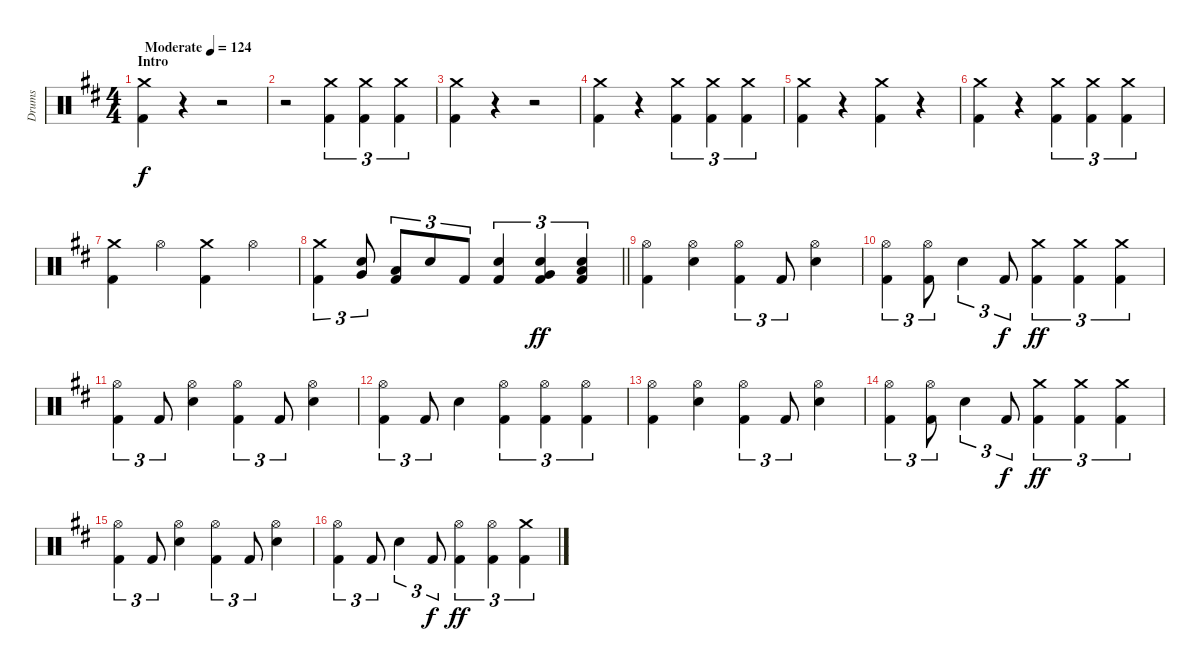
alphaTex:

\track ("Drums" "Drums") {instrument percussion}
\staff {score}
\articulation defaults
\ts (4 4)
\section ("" "Intro")
\tempo (124 "Moderate")
\clef neutral
\ks d
("Crash medium (hit)" "Kick (hit) 2").4{dy f} r.4 r.2 |
r.2 ("Crash medium (hit)" "Kick (hit) 2").4{tu (3 2)} ("Crash medium (hit)" "Kick (hit) 2").4{tu (3 2)} ("Crash medium (hit)" "Kick (hit) 2").4{tu (3 2)} |
("Crash medium (hit)" "Kick (hit) 2").4 r.4 r.2 |
("Crash medium (hit)" "Kick (hit) 2").4 r.4 ("Crash medium (hit)" "Kick (hit) 2").4{tu (3 2)} ("Crash medium (hit)" "Kick (hit) 2").4{tu (3 2)} ("Crash medium (hit)" "Kick (hit) 2").4{tu (3 2)} |
("Crash medium (hit)" "Kick (hit) 2").4 r.4 ("Crash medium (hit)" "Kick (hit) 2").4 r.4 |
("Crash medium (hit)" "Kick (hit) 2").4 r.4 ("Crash medium (hit)" "Kick (hit) 2").4{tu (3 2)} ("Crash medium (hit)" "Kick (hit) 2").4{tu (3 2)} ("Crash medium (hit)" "Kick (hit) 2").4{tu (3 2)} |
("Crash medium (hit)" "Kick (hit) 2").4 "Hi-Hat (open)".4 ("Crash medium (hit)" "Kick (hit) 2").4 "Hi-Hat (open)".4 |
\barLineRight lightlight
("Crash medium (hit)" "Kick (hit) 2").4{tu (3 2)} ("Electric Snare (hit)" "Very Low Tom (hit)").8{tu (3 2)} ("Low Floor Tom (hit)" "Kick (hit) 2").8{tu (3 2)} "Electric Snare (hit)".8{tu (3 2)} "Kick (hit) 2".8{tu (3 2)} ("Electric Snare (hit)" "Kick (hit) 2").4{tu (3 2)} ("Electric Snare (hit)" "Very Low Tom (hit)" "Kick (hit) 2").4{tu (3 2) dy ff} ("Electric Snare (hit)" "Low Floor Tom (hit)" "Kick (hit) 2").4{tu (3 2)} |
("Hi-Hat (open)" "Kick (hit) 2").4 ("Hi-Hat (open)" "Electric Snare (hit)").4 ("Hi-Hat (open)" "Kick (hit) 2").4{tu (3 2)} "Kick (hit) 2".8{tu (3 2)} ("Hi-Hat (open)" "Electric Snare (hit)").4 |
("Hi-Hat (open)" "Kick (hit) 2").4{tu (3 2)} ("Hi-Hat (open)" "Kick (hit) 2").8{tu (3 2)} "Electric Snare (hit)".4{tu (3 2)} "Kick (hit) 2".8{tu (3 2) dy f} ("Crash medium (hit)" "Kick (hit) 2").4{tu (3 2) dy ff} ("Crash medium (hit)" "Kick (hit) 2").4{tu (3 2)} ("Crash medium (hit)" "Kick (hit) 2").4{tu (3 2)} |
("Hi-Hat (open)" "Kick (hit) 2").4{tu (3 2)} "Kick (hit) 2".8{tu (3 2)} ("Hi-Hat (open)" "Electric Snare (hit)").4 ("Hi-Hat (open)" "Kick (hit) 2").4{tu (3 2)} "Kick (hit) 2".8{tu (3 2)} ("Hi-Hat (open)" "Electric Snare (hit)").4 |
("Hi-Hat (open)" "Kick (hit) 2").4{tu (3 2)} "Kick (hit) 2".8{tu (3 2)} "Electric Snare (hit)".4 ("Hi-Hat (open)" "Kick (hit) 2").4{tu (3 2)} ("Hi-Hat (open)" "Kick (hit) 2").4{tu (3 2)} ("Hi-Hat (open)" "Kick (hit) 2").4{tu (3 2)} |
("Hi-Hat (open)" "Kick (hit) 2").4 ("Hi-Hat (open)" "Electric Snare (hit)").4 ("Hi-Hat (open)" "Kick (hit) 2").4{tu (3 2)} "Kick (hit) 2".8{tu (3 2)} ("Hi-Hat (open)" "Electric Snare (hit)").4 |
("Hi-Hat (open)" "Kick (hit) 2").4{tu (3 2)} ("Hi-Hat (open)" "Kick (hit) 2").8{tu (3 2)} "Electric Snare (hit)".4{tu (3 2)} "Kick (hit) 2".8{tu (3 2) dy f} ("Crash medium (hit)" "Kick (hit) 2").4{tu (3 2) dy ff} ("Crash medium (hit)" "Kick (hit) 2").4{tu (3 2)} ("Crash medium (hit)" "Kick (hit) 2").4{tu (3 2)} |
("Hi-Hat (open)" "Kick (hit) 2").4{tu (3 2)} "Kick (hit) 2".8{tu (3 2)} ("Hi-Hat (open)" "Electric Snare (hit)").4 ("Hi-Hat (open)" "Kick (hit) 2").4{tu (3 2)} "Kick (hit) 2".8{tu (3 2)} ("Hi-Hat (open)" "Electric Snare (hit)").4 |
("Hi-Hat (open)" "Kick (hit) 2").4{tu (3 2)} "Kick (hit) 2".8{tu (3 2)} "Electric Snare (hit)".4{tu (3 2)} "Kick (hit) 2".8{tu (3 2) dy f} ("Hi-Hat (open)" "Kick (hit) 2").4{tu (3 2) dy ff} ("Hi-Hat (open)" "Kick (hit) 2").4{tu (3 2)} ("Crash medium (hit)" "Kick (hit) 2").4{tu (3 2)}
